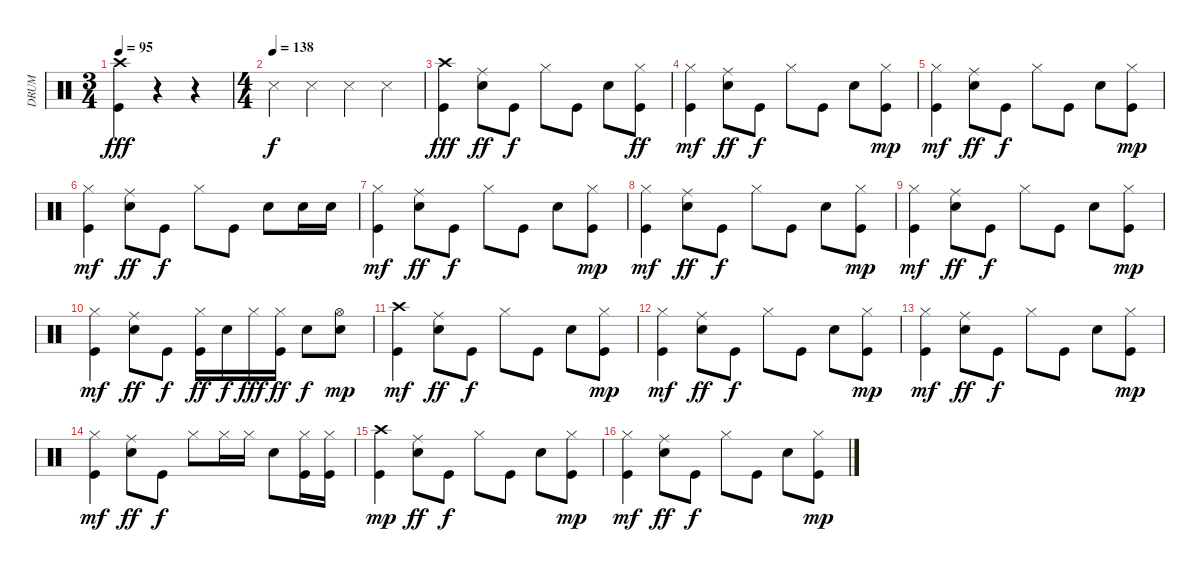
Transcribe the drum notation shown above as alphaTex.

\track ("DRUM" "DRUM") {instrument percussion}
\staff {score}
\articulation defaults
\ts (3 4)
\tempo 95
\clef neutral
\ks c
("Crash high (hit)" "Kick (hit)").4{dy fff} r.4 r.4 |
\ts (4 4)
\tempo (138)
"Snare (side stick) 3".4{dy f} "Snare (side stick) 3".4 "Snare (side stick) 3".4 "Snare (side stick) 3".4 |
("Crash high (hit)" "Kick (hit)").4{dy fff} ("Ride (middle)" "Snare (hit) 2").8{dy ff} "Kick (hit)".8{dy f} "Hi-Hat (closed)".8 "Kick (hit)".8 "Snare (hit) 2".8 ("Hi-Hat (closed)" "Kick (hit)").8{dy ff} |
("Hi-Hat (closed)" "Kick (hit)").4{dy mf} ("Ride (middle)" "Snare (hit) 2").8{dy ff} "Kick (hit)".8{dy f} "Hi-Hat (closed)".8 "Kick (hit)".8 "Snare (hit) 2".8 ("Hi-Hat (closed)" "Kick (hit)").8{dy mp} |
("Hi-Hat (closed)" "Kick (hit)").4{dy mf} ("Ride (middle)" "Snare (hit) 2").8{dy ff} "Kick (hit)".8{dy f} "Hi-Hat (closed)".8 "Kick (hit)".8 "Snare (hit) 2".8 ("Hi-Hat (closed)" "Kick (hit)").8{dy mp} |
("Hi-Hat (closed)" "Kick (hit)").4{dy mf} ("Ride (middle)" "Snare (hit) 2").8{dy ff} "Kick (hit)".8{dy f} "Hi-Hat (closed)".8 "Kick (hit)".8 "Snare (hit) 2".8 "Snare (hit) 2".16 "Snare (hit) 2".16 |
("Hi-Hat (closed)" "Kick (hit)").4{dy mf} ("Ride (middle)" "Snare (hit) 2").8{dy ff} "Kick (hit)".8{dy f} "Hi-Hat (closed)".8 "Kick (hit)".8 "Snare (hit) 2".8 ("Hi-Hat (closed)" "Kick (hit)").8{dy mp} |
("Hi-Hat (closed)" "Kick (hit)").4{dy mf} ("Ride (middle)" "Snare (hit) 2").8{dy ff} "Kick (hit)".8{dy f} "Hi-Hat (closed)".8 "Kick (hit)".8 "Snare (hit) 2".8 ("Hi-Hat (closed)" "Kick (hit)").8{dy mp} |
("Hi-Hat (closed)" "Kick (hit)").4{dy mf} ("Ride (middle)" "Snare (hit) 2").8{dy ff} "Kick (hit)".8{dy f} "Hi-Hat (closed)".8 "Kick (hit)".8 "Snare (hit) 2".8 ("Hi-Hat (closed)" "Kick (hit)").8{dy mp} |
("Hi-Hat (closed)" "Kick (hit)").4{dy mf} ("Ride (middle)" "Snare (hit) 2").8{dy ff} "Kick (hit)".8{dy f} ("Kick (hit)" "Hi-Hat (closed)").16{dy ff} "Snare (hit) 2".16{dy f} "Hi-Hat (closed)".16{dy fff} ("Hi-Hat (closed)" "Kick (hit)").16{dy ff} "Snare (hit) 2".8{dy f} ("Snare (hit) 2" "Hi-Hat (open)").8{dy mp} |
("Crash high (hit)" "Kick (hit)").4{dy mf} ("Ride (middle)" "Snare (hit) 2").8{dy ff} "Kick (hit)".8{dy f} "Hi-Hat (closed)".8 "Kick (hit)".8 "Snare (hit) 2".8 ("Hi-Hat (closed)" "Kick (hit)").8{dy mp} |
("Hi-Hat (closed)" "Kick (hit)").4{dy mf} ("Ride (middle)" "Snare (hit) 2").8{dy ff} "Kick (hit)".8{dy f} "Hi-Hat (closed)".8 "Kick (hit)".8 "Snare (hit) 2".8 ("Hi-Hat (closed)" "Kick (hit)").8{dy mp} |
("Hi-Hat (closed)" "Kick (hit)").4{dy mf} ("Ride (middle)" "Snare (hit) 2").8{dy ff} "Kick (hit)".8{dy f} "Hi-Hat (closed)".8 "Kick (hit)".8 "Snare (hit) 2".8 ("Hi-Hat (closed)" "Kick (hit)").8{dy mp} |
("Hi-Hat (closed)" "Kick (hit)").4{dy mf} ("Ride (middle)" "Snare (hit) 2").8{dy ff} "Kick (hit)".8{dy f} "Hi-Hat (closed)".8 "Hi-Hat (closed)".16 "Hi-Hat (closed)".16 "Snare (hit) 2".8 ("Hi-Hat (closed)" "Kick (hit)").16 ("Hi-Hat (closed)" "Kick (hit)").16 |
("Crash high (hit)" "Kick (hit)").4{dy mp} ("Ride (middle)" "Snare (hit) 2").8{dy ff} "Kick (hit)".8{dy f} "Hi-Hat (closed)".8 "Kick (hit)".8 "Snare (hit) 2".8 ("Hi-Hat (closed)" "Kick (hit)").8{dy mp} |
("Hi-Hat (closed)" "Kick (hit)").4{dy mf} ("Ride (middle)" "Snare (hit) 2").8{dy ff} "Kick (hit)".8{dy f} "Hi-Hat (closed)".8 "Kick (hit)".8 "Snare (hit) 2".8 ("Hi-Hat (closed)" "Kick (hit)").8{dy mp}
